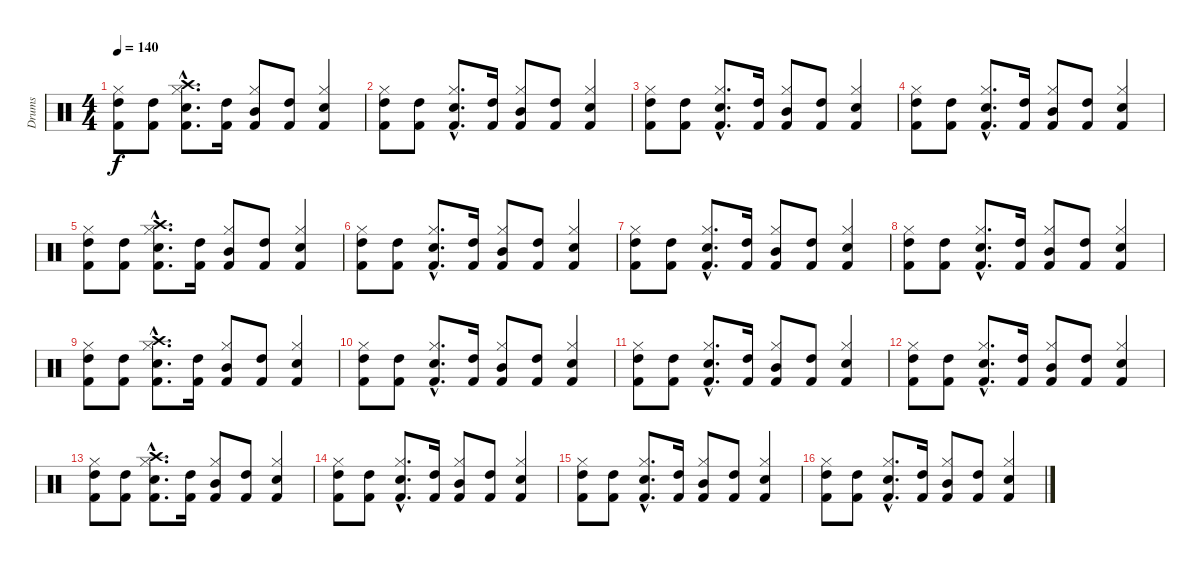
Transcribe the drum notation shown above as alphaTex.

\track ("Drums" "Drums") {instrument percussion}
\staff {score}
\articulation defaults
\ts (4 4)
\tempo 140
\clef neutral
\ks c
("Kick (hit) 2" "High Tom (hit)" "Hi-Hat (closed)").8{dy f} ("Kick (hit) 2" "High Tom (hit)").8 ("Kick (hit) 2"{hac} "Electric Snare (hit)"{hac} "Crash high (hit)"{hac} "Hi-Hat (closed)"{hac}).8{d} ("Kick (hit) 2" "High Tom (hit)").16 ("Kick (hit) 2" "Mid Tom (hit)" "Hi-Hat (closed)").8 ("Kick (hit) 2" "High Tom (hit)").8 ("Kick (hit) 2" "Electric Snare (hit)" "Hi-Hat (closed)").4 |
("Kick (hit) 2" "High Tom (hit)" "Hi-Hat (closed)").8 ("Kick (hit) 2" "High Tom (hit)").8 ("Kick (hit) 2"{hac} "Electric Snare (hit)"{hac} "Hi-Hat (closed)"{hac}).8{d} ("Kick (hit) 2" "High Tom (hit)").16 ("Kick (hit) 2" "Mid Tom (hit)" "Hi-Hat (closed)").8 ("Kick (hit) 2" "High Tom (hit)").8 ("Kick (hit) 2" "Electric Snare (hit)" "Hi-Hat (closed)").4 |
("Kick (hit) 2" "High Tom (hit)" "Hi-Hat (closed)").8 ("Kick (hit) 2" "High Tom (hit)").8 ("Kick (hit) 2"{hac} "Electric Snare (hit)"{hac} "Hi-Hat (closed)"{hac}).8{d} ("Kick (hit) 2" "High Tom (hit)").16 ("Kick (hit) 2" "Mid Tom (hit)" "Hi-Hat (closed)").8 ("Kick (hit) 2" "High Tom (hit)").8 ("Kick (hit) 2" "Electric Snare (hit)" "Hi-Hat (closed)").4 |
("Kick (hit) 2" "High Tom (hit)" "Hi-Hat (closed)").8 ("Kick (hit) 2" "High Tom (hit)").8 ("Kick (hit) 2"{hac} "Electric Snare (hit)"{hac} "Hi-Hat (closed)"{hac}).8{d} ("Kick (hit) 2" "High Tom (hit)").16 ("Kick (hit) 2" "Mid Tom (hit)" "Hi-Hat (closed)").8 ("Kick (hit) 2" "High Tom (hit)").8 ("Kick (hit) 2" "Electric Snare (hit)" "Hi-Hat (closed)").4 |
("Kick (hit) 2" "High Tom (hit)" "Hi-Hat (closed)").8 ("Kick (hit) 2" "High Tom (hit)").8 ("Kick (hit) 2"{hac} "Electric Snare (hit)"{hac} "Crash high (hit)"{hac} "Hi-Hat (closed)"{hac}).8{d} ("Kick (hit) 2" "High Tom (hit)").16 ("Kick (hit) 2" "Mid Tom (hit)" "Hi-Hat (closed)").8 ("Kick (hit) 2" "High Tom (hit)").8 ("Kick (hit) 2" "Electric Snare (hit)" "Hi-Hat (closed)").4 |
("Kick (hit) 2" "High Tom (hit)" "Hi-Hat (closed)").8 ("Kick (hit) 2" "High Tom (hit)").8 ("Kick (hit) 2"{hac} "Electric Snare (hit)"{hac} "Hi-Hat (closed)"{hac}).8{d} ("Kick (hit) 2" "High Tom (hit)").16 ("Kick (hit) 2" "Mid Tom (hit)" "Hi-Hat (closed)").8 ("Kick (hit) 2" "High Tom (hit)").8 ("Kick (hit) 2" "Electric Snare (hit)" "Hi-Hat (closed)").4 |
("Kick (hit) 2" "High Tom (hit)" "Hi-Hat (closed)").8 ("Kick (hit) 2" "High Tom (hit)").8 ("Kick (hit) 2"{hac} "Electric Snare (hit)"{hac} "Hi-Hat (closed)"{hac}).8{d} ("Kick (hit) 2" "High Tom (hit)").16 ("Kick (hit) 2" "Mid Tom (hit)" "Hi-Hat (closed)").8 ("Kick (hit) 2" "High Tom (hit)").8 ("Kick (hit) 2" "Electric Snare (hit)" "Hi-Hat (closed)").4 |
("Kick (hit) 2" "High Tom (hit)" "Hi-Hat (closed)").8 ("Kick (hit) 2" "High Tom (hit)").8 ("Kick (hit) 2"{hac} "Electric Snare (hit)"{hac} "Hi-Hat (closed)"{hac}).8{d} ("Kick (hit) 2" "High Tom (hit)").16 ("Kick (hit) 2" "Mid Tom (hit)" "Hi-Hat (closed)").8 ("Kick (hit) 2" "High Tom (hit)").8 ("Kick (hit) 2" "Electric Snare (hit)" "Hi-Hat (closed)").4 |
("Kick (hit) 2" "High Tom (hit)" "Hi-Hat (closed)").8 ("Kick (hit) 2" "High Tom (hit)").8 ("Kick (hit) 2"{hac} "Electric Snare (hit)"{hac} "Crash high (hit)"{hac} "Hi-Hat (closed)"{hac}).8{d} ("Kick (hit) 2" "High Tom (hit)").16 ("Kick (hit) 2" "Mid Tom (hit)" "Hi-Hat (closed)").8 ("Kick (hit) 2" "High Tom (hit)").8 ("Kick (hit) 2" "Electric Snare (hit)" "Hi-Hat (closed)").4 |
("Kick (hit) 2" "High Tom (hit)" "Hi-Hat (closed)").8 ("Kick (hit) 2" "High Tom (hit)").8 ("Kick (hit) 2"{hac} "Electric Snare (hit)"{hac} "Hi-Hat (closed)"{hac}).8{d} ("Kick (hit) 2" "High Tom (hit)").16 ("Kick (hit) 2" "Mid Tom (hit)" "Hi-Hat (closed)").8 ("Kick (hit) 2" "High Tom (hit)").8 ("Kick (hit) 2" "Electric Snare (hit)" "Hi-Hat (closed)").4 |
("Kick (hit) 2" "High Tom (hit)" "Hi-Hat (closed)").8 ("Kick (hit) 2" "High Tom (hit)").8 ("Kick (hit) 2"{hac} "Electric Snare (hit)"{hac} "Hi-Hat (closed)"{hac}).8{d} ("Kick (hit) 2" "High Tom (hit)").16 ("Kick (hit) 2" "Mid Tom (hit)" "Hi-Hat (closed)").8 ("Kick (hit) 2" "High Tom (hit)").8 ("Kick (hit) 2" "Electric Snare (hit)" "Hi-Hat (closed)").4 |
("Kick (hit) 2" "High Tom (hit)" "Hi-Hat (closed)").8 ("Kick (hit) 2" "High Tom (hit)").8 ("Kick (hit) 2"{hac} "Electric Snare (hit)"{hac} "Hi-Hat (closed)"{hac}).8{d} ("Kick (hit) 2" "High Tom (hit)").16 ("Kick (hit) 2" "Mid Tom (hit)" "Hi-Hat (closed)").8 ("Kick (hit) 2" "High Tom (hit)").8 ("Kick (hit) 2" "Electric Snare (hit)" "Hi-Hat (closed)").4 |
("Kick (hit) 2" "High Tom (hit)" "Hi-Hat (closed)").8 ("Kick (hit) 2" "High Tom (hit)").8 ("Kick (hit) 2"{hac} "Electric Snare (hit)"{hac} "Crash high (hit)"{hac} "Hi-Hat (closed)"{hac}).8{d} ("Kick (hit) 2" "High Tom (hit)").16 ("Kick (hit) 2" "Mid Tom (hit)" "Hi-Hat (closed)").8 ("Kick (hit) 2" "High Tom (hit)").8 ("Kick (hit) 2" "Electric Snare (hit)" "Hi-Hat (closed)").4 |
("Kick (hit) 2" "High Tom (hit)" "Hi-Hat (closed)").8 ("Kick (hit) 2" "High Tom (hit)").8 ("Kick (hit) 2"{hac} "Electric Snare (hit)"{hac} "Hi-Hat (closed)"{hac}).8{d} ("Kick (hit) 2" "High Tom (hit)").16 ("Kick (hit) 2" "Mid Tom (hit)" "Hi-Hat (closed)").8 ("Kick (hit) 2" "High Tom (hit)").8 ("Kick (hit) 2" "Electric Snare (hit)" "Hi-Hat (closed)").4 |
("Kick (hit) 2" "High Tom (hit)" "Hi-Hat (closed)").8 ("Kick (hit) 2" "High Tom (hit)").8 ("Kick (hit) 2"{hac} "Electric Snare (hit)"{hac} "Hi-Hat (closed)"{hac}).8{d} ("Kick (hit) 2" "High Tom (hit)").16 ("Kick (hit) 2" "Mid Tom (hit)" "Hi-Hat (closed)").8 ("Kick (hit) 2" "High Tom (hit)").8 ("Kick (hit) 2" "Electric Snare (hit)" "Hi-Hat (closed)").4 |
("Kick (hit) 2" "High Tom (hit)" "Hi-Hat (closed)").8 ("Kick (hit) 2" "High Tom (hit)").8 ("Kick (hit) 2"{hac} "Electric Snare (hit)"{hac} "Hi-Hat (closed)"{hac}).8{d} ("Kick (hit) 2" "High Tom (hit)").16 ("Kick (hit) 2" "Mid Tom (hit)" "Hi-Hat (closed)").8 ("Kick (hit) 2" "High Tom (hit)").8 ("Kick (hit) 2" "Electric Snare (hit)" "Hi-Hat (closed)").4
